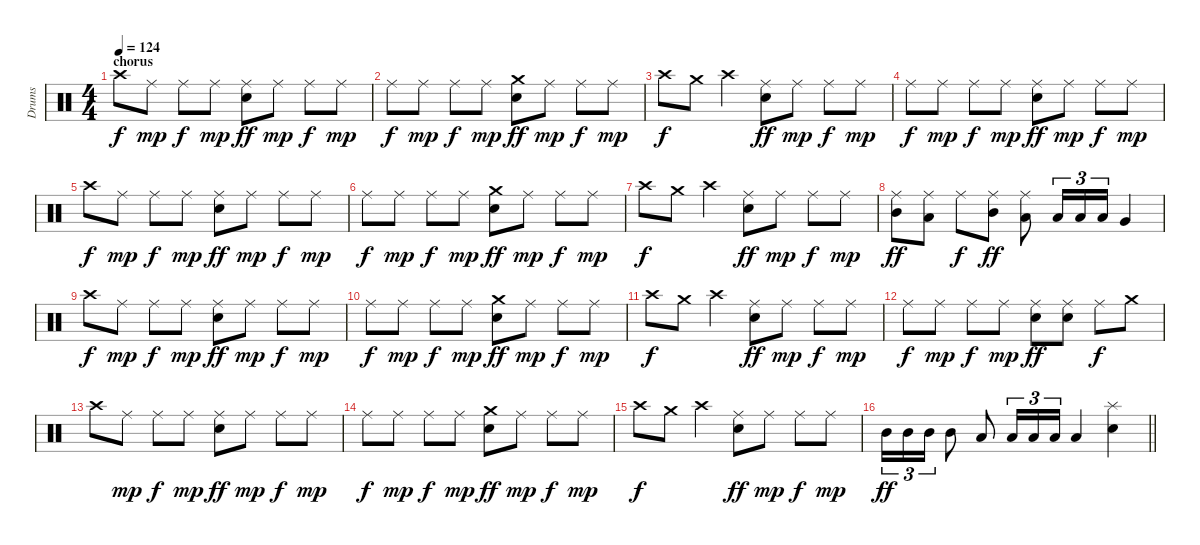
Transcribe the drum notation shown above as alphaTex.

\track ("Drums" "Drums") {instrument percussion}
\staff {score}
\articulation defaults
\ts (4 4)
\section ("" "chorus")
\tempo 124
\clef neutral
\ks c "Crash high (hit)".8{dy f} "Ride (middle)".8{dy mp} "Ride (middle)".8{dy f} "Ride (middle)".8{dy mp}
("Ride (middle)" "Snare (hit) 2").8{dy ff} "Ride (middle)".8{dy mp} "Ride (middle)".8{dy f} "Ride (middle)".8{dy mp} |
"Ride (middle)".8{dy f} "Ride (middle)".8{dy mp} "Ride (middle)".8{dy f} "Ride (middle)".8{dy mp} ("Crash medium (hit)" "Snare (hit) 2").8{dy ff} "Ride (middle)".8{dy mp} "Ride (middle)".8{dy f} "Ride (middle)".8{dy mp} |
"Crash high (hit)".8{dy f} "Crash medium (hit)".8 "Crash high (hit)".4 ("Ride (middle)" "Snare (hit) 2").8{dy ff} "Ride (middle)".8{dy mp} "Ride (middle)".8{dy f} "Ride (middle)".8{dy mp} |
"Ride (middle)".8{dy f} "Ride (middle)".8{dy mp} "Ride (middle)".8{dy f} "Ride (middle)".8{dy mp} ("Ride (middle)" "Snare (hit) 2").8{dy ff} "Ride (middle)".8{dy mp} "Ride (middle)".8{dy f} "Ride (middle)".8{dy mp} |
"Crash high (hit)".8{dy f} "Ride (middle)".8{dy mp} "Ride (middle)".8{dy f} "Ride (middle)".8{dy mp} ("Ride (middle)" "Snare (hit) 2").8{dy ff} "Ride (middle)".8{dy mp} "Ride (middle)".8{dy f} "Ride (middle)".8{dy mp} |
"Ride (middle)".8{dy f} "Ride (middle)".8{dy mp} "Ride (middle)".8{dy f} "Ride (middle)".8{dy mp} ("Crash medium (hit)" "Snare (hit) 2").8{dy ff} "Ride (middle)".8{dy mp} "Ride (middle)".8{dy f} "Ride (middle)".8{dy mp} |
"Crash high (hit)".8{dy f} "Crash medium (hit)".8 "Crash high (hit)".4 ("Ride (middle)" "Snare (hit) 2").8{dy ff} "Ride (middle)".8{dy mp} "Ride (middle)".8{dy f} "Ride (middle)".8{dy mp} |
("Ride (middle)" "Mid Tom (hit)").8{dy ff} ("Ride (middle)" "Low Tom (hit)").8 "Ride (middle)".8{dy f} ("Ride (middle)" "Mid Tom (hit)").8{dy ff} ("Ride (middle)" "Low Tom (hit)").8 "Low Tom (hit)".16{tu (3 2)} "Low Tom (hit)".16{tu (3 2)} "Low Tom (hit)".16{tu (3 2)} "Very Low Tom (hit)".4 |
"Crash high (hit)".8{dy f} "Ride (middle)".8{dy mp} "Ride (middle)".8{dy f} "Ride (middle)".8{dy mp} ("Ride (middle)" "Snare (hit) 2").8{dy ff} "Ride (middle)".8{dy mp} "Ride (middle)".8{dy f} "Ride (middle)".8{dy mp} |
"Ride (middle)".8{dy f} "Ride (middle)".8{dy mp} "Ride (middle)".8{dy f} "Ride (middle)".8{dy mp} ("Crash medium (hit)" "Snare (hit) 2").8{dy ff} "Ride (middle)".8{dy mp} "Ride (middle)".8{dy f} "Ride (middle)".8{dy mp} |
"Crash high (hit)".8{dy f} "Crash medium (hit)".8 "Crash high (hit)".4 ("Ride (middle)" "Snare (hit) 2").8{dy ff} "Ride (middle)".8{dy mp} "Ride (middle)".8{dy f} "Ride (middle)".8{dy mp} |
"Ride (middle)".8{dy f} "Ride (middle)".8{dy mp} "Ride (middle)".8{dy f} "Ride (middle)".8{dy mp} ("Ride (middle)" "Snare (hit) 2").8{dy ff} ("Ride (middle)" "Snare (hit) 2").8 "Ride (middle)".8{dy f} "Crash medium (hit)".8 |
"Crash high (hit)".8 "Ride (middle)".8{dy mp} "Ride (middle)".8{dy f} "Ride (middle)".8{dy mp} ("Ride (middle)" "Snare (hit) 2").8{dy ff} "Ride (middle)".8{dy mp} "Ride (middle)".8{dy f} "Ride (middle)".8{dy mp} |
"Ride (middle)".8{dy f} "Ride (middle)".8{dy mp} "Ride (middle)".8{dy f} "Ride (middle)".8{dy mp} ("Crash medium (hit)" "Snare (hit) 2").8{dy ff} "Ride (middle)".8{dy mp} "Ride (middle)".8{dy f} "Ride (middle)".8{dy mp} |
"Crash high (hit)".8{dy f} "Crash medium (hit)".8 "Crash high (hit)".4 ("Ride (middle)" "Snare (hit) 2").8{dy ff} "Ride (middle)".8{dy mp} "Ride (middle)".8{dy f} "Ride (middle)".8{dy mp} |
\barLineRight lightlight "Mid Tom (hit)".16{tu (3 2) dy ff} "Mid Tom (hit)".16{tu (3 2)} "Mid Tom (hit)".16{tu (3 2)} "Mid Tom (hit)".8 "Low Tom (hit)".8 "Low Tom (hit)".16{tu (3 2)} "Low Tom (hit)".16{tu (3 2)} "Low Tom (hit)".16{tu (3 2)} "Low Tom (hit)".4
("Splash (hit)" "Snare (hit) 2").4
